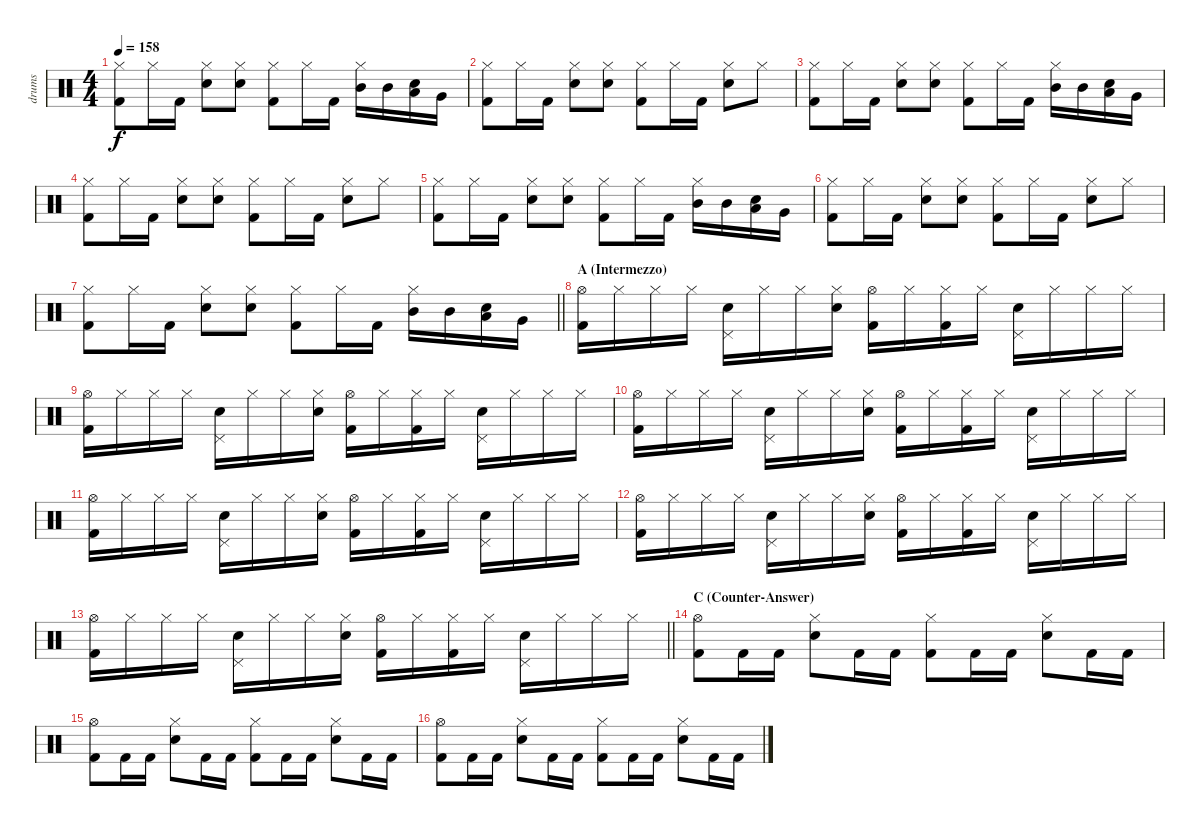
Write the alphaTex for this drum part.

\track ("drums" "drums") {instrument percussion}
\staff {score}
\articulation defaults
\ts (4 4)
\tempo 158
\clef neutral
\ks c
("Hi-Hat (closed)" "Kick (hit) 2").8{dy f} "Hi-Hat (closed)".16 "Kick (hit) 2".16 ("Hi-Hat (closed)" "Electric Snare (hit)").8 ("Hi-Hat (closed)" "Electric Snare (hit)").8 ("Hi-Hat (closed)" "Kick (hit) 2").8 "Hi-Hat (closed)".16 "Kick (hit) 2".16 ("Hi-Hat (closed)" "Mid Tom (hit)").16 "Mid Tom (hit)".16 ("Snare (hit)" "Low Tom (hit)").16 "Very Low Tom (hit)".16 |
("Hi-Hat (closed)" "Kick (hit) 2").8 "Hi-Hat (closed)".16 "Kick (hit) 2".16 ("Hi-Hat (closed)" "Electric Snare (hit)").8 ("Hi-Hat (closed)" "Electric Snare (hit)").8 ("Hi-Hat (closed)" "Kick (hit) 2").8 "Hi-Hat (closed)".16 "Kick (hit) 2".16 ("Hi-Hat (closed)" "Electric Snare (hit)").8 "Hi-Hat (closed)".8 |
("Hi-Hat (closed)" "Kick (hit) 2").8 "Hi-Hat (closed)".16 "Kick (hit) 2".16 ("Hi-Hat (closed)" "Electric Snare (hit)").8 ("Hi-Hat (closed)" "Electric Snare (hit)").8 ("Hi-Hat (closed)" "Kick (hit) 2").8 "Hi-Hat (closed)".16 "Kick (hit) 2".16 ("Hi-Hat (closed)" "Mid Tom (hit)").16 "Mid Tom (hit)".16 ("Snare (hit)" "Low Tom (hit)").16 "Very Low Tom (hit)".16 |
("Hi-Hat (closed)" "Kick (hit) 2").8 "Hi-Hat (closed)".16 "Kick (hit) 2".16 ("Hi-Hat (closed)" "Electric Snare (hit)").8 ("Hi-Hat (closed)" "Electric Snare (hit)").8 ("Hi-Hat (closed)" "Kick (hit) 2").8 "Hi-Hat (closed)".16 "Kick (hit) 2".16 ("Hi-Hat (closed)" "Electric Snare (hit)").8 "Hi-Hat (closed)".8 |
("Hi-Hat (closed)" "Kick (hit) 2").8 "Hi-Hat (closed)".16 "Kick (hit) 2".16 ("Hi-Hat (closed)" "Electric Snare (hit)").8 ("Hi-Hat (closed)" "Electric Snare (hit)").8 ("Hi-Hat (closed)" "Kick (hit) 2").8 "Hi-Hat (closed)".16 "Kick (hit) 2".16 ("Hi-Hat (closed)" "Mid Tom (hit)").16 "Mid Tom (hit)".16 ("Snare (hit)" "Low Tom (hit)").16 "Very Low Tom (hit)".16 |
("Hi-Hat (closed)" "Kick (hit) 2").8 "Hi-Hat (closed)".16 "Kick (hit) 2".16 ("Hi-Hat (closed)" "Electric Snare (hit)").8 ("Hi-Hat (closed)" "Electric Snare (hit)").8 ("Hi-Hat (closed)" "Kick (hit) 2").8 "Hi-Hat (closed)".16 "Kick (hit) 2".16 ("Hi-Hat (closed)" "Electric Snare (hit)").8 "Hi-Hat (closed)".8 |
\barLineRight lightlight
("Hi-Hat (closed)" "Kick (hit) 2").8 "Hi-Hat (closed)".16 "Kick (hit) 2".16 ("Hi-Hat (closed)" "Electric Snare (hit)").8 ("Hi-Hat (closed)" "Electric Snare (hit)").8 ("Hi-Hat (closed)" "Kick (hit) 2").8 "Hi-Hat (closed)".16 "Kick (hit) 2".16 ("Hi-Hat (closed)" "Mid Tom (hit)").16 "Mid Tom (hit)".16 ("Snare (hit)" "Low Tom (hit)").16 "Very Low Tom (hit)".16 |
\section ("" "A (Intermezzo)")
("Hi-Hat (open)" "Kick (hit) 2").16 "Hi-Hat (closed)".16 "Hi-Hat (closed)".16 "Hi-Hat (closed)".16 ("Pedal Hi-Hat (hit)" "Electric Snare (hit)").16 "Hi-Hat (closed)".16 "Hi-Hat (closed)".16 ("Hi-Hat (closed)" "Electric Snare (hit)").16 ("Hi-Hat (open)" "Kick (hit) 2").16 "Hi-Hat (closed)".16 ("Hi-Hat (closed)" "Kick (hit) 2").16 "Hi-Hat (closed)".16 ("Pedal Hi-Hat (hit)" "Electric Snare (hit)").16 "Hi-Hat (closed)".16 "Hi-Hat (closed)".16 "Hi-Hat (closed)".16 |
("Hi-Hat (open)" "Kick (hit) 2").16 "Hi-Hat (closed)".16 "Hi-Hat (closed)".16 "Hi-Hat (closed)".16 ("Pedal Hi-Hat (hit)" "Electric Snare (hit)").16 "Hi-Hat (closed)".16 "Hi-Hat (closed)".16 ("Hi-Hat (closed)" "Electric Snare (hit)").16 ("Hi-Hat (open)" "Kick (hit) 2").16 "Hi-Hat (closed)".16 ("Hi-Hat (closed)" "Kick (hit) 2").16 "Hi-Hat (closed)".16 ("Pedal Hi-Hat (hit)" "Electric Snare (hit)").16 "Hi-Hat (closed)".16 "Hi-Hat (closed)".16 "Hi-Hat (closed)".16 |
("Hi-Hat (open)" "Kick (hit) 2").16 "Hi-Hat (closed)".16 "Hi-Hat (closed)".16 "Hi-Hat (closed)".16 ("Pedal Hi-Hat (hit)" "Electric Snare (hit)").16 "Hi-Hat (closed)".16 "Hi-Hat (closed)".16 ("Hi-Hat (closed)" "Electric Snare (hit)").16 ("Hi-Hat (open)" "Kick (hit) 2").16 "Hi-Hat (closed)".16 ("Hi-Hat (closed)" "Kick (hit) 2").16 "Hi-Hat (closed)".16 ("Pedal Hi-Hat (hit)" "Electric Snare (hit)").16 "Hi-Hat (closed)".16 "Hi-Hat (closed)".16 "Hi-Hat (closed)".16 |
("Hi-Hat (open)" "Kick (hit) 2").16 "Hi-Hat (closed)".16 "Hi-Hat (closed)".16 "Hi-Hat (closed)".16 ("Pedal Hi-Hat (hit)" "Electric Snare (hit)").16 "Hi-Hat (closed)".16 "Hi-Hat (closed)".16 ("Hi-Hat (closed)" "Electric Snare (hit)").16 ("Hi-Hat (open)" "Kick (hit) 2").16 "Hi-Hat (closed)".16 ("Hi-Hat (closed)" "Kick (hit) 2").16 "Hi-Hat (closed)".16 ("Pedal Hi-Hat (hit)" "Electric Snare (hit)").16 "Hi-Hat (closed)".16 "Hi-Hat (closed)".16 "Hi-Hat (closed)".16 |
("Hi-Hat (open)" "Kick (hit) 2").16 "Hi-Hat (closed)".16 "Hi-Hat (closed)".16 "Hi-Hat (closed)".16 ("Pedal Hi-Hat (hit)" "Electric Snare (hit)").16 "Hi-Hat (closed)".16 "Hi-Hat (closed)".16 ("Hi-Hat (closed)" "Electric Snare (hit)").16 ("Hi-Hat (open)" "Kick (hit) 2").16 "Hi-Hat (closed)".16 ("Hi-Hat (closed)" "Kick (hit) 2").16 "Hi-Hat (closed)".16 ("Pedal Hi-Hat (hit)" "Electric Snare (hit)").16 "Hi-Hat (closed)".16 "Hi-Hat (closed)".16 "Hi-Hat (closed)".16 |
\barLineRight lightlight
("Hi-Hat (open)" "Kick (hit) 2").16 "Hi-Hat (closed)".16 "Hi-Hat (closed)".16 "Hi-Hat (closed)".16 ("Pedal Hi-Hat (hit)" "Electric Snare (hit)").16 "Hi-Hat (closed)".16 "Hi-Hat (closed)".16 ("Hi-Hat (closed)" "Electric Snare (hit)").16 ("Hi-Hat (open)" "Kick (hit) 2").16 "Hi-Hat (closed)".16 ("Hi-Hat (closed)" "Kick (hit) 2").16 "Hi-Hat (closed)".16 ("Pedal Hi-Hat (hit)" "Electric Snare (hit)").16 "Hi-Hat (closed)".16 "Hi-Hat (closed)".16 "Hi-Hat (closed)".16 |
\section ("" "C (Counter-Answer)")
("Hi-Hat (open)" "Kick (hit) 2").8 "Kick (hit) 2".16 "Kick (hit) 2".16 ("Hi-Hat (closed)" "Electric Snare (hit)").8 "Kick (hit) 2".16 "Kick (hit) 2".16 ("Hi-Hat (closed)" "Kick (hit) 2").8 "Kick (hit) 2".16 "Kick (hit) 2".16 ("Hi-Hat (closed)" "Electric Snare (hit)").8 "Kick (hit) 2".16 "Kick (hit) 2".16 |
("Hi-Hat (open)" "Kick (hit) 2").8 "Kick (hit) 2".16 "Kick (hit) 2".16 ("Hi-Hat (closed)" "Electric Snare (hit)").8 "Kick (hit) 2".16 "Kick (hit) 2".16 ("Hi-Hat (closed)" "Kick (hit) 2").8 "Kick (hit) 2".16 "Kick (hit) 2".16 ("Hi-Hat (closed)" "Electric Snare (hit)").8 "Kick (hit) 2".16 "Kick (hit) 2".16 |
("Hi-Hat (open)" "Kick (hit) 2").8 "Kick (hit) 2".16 "Kick (hit) 2".16 ("Hi-Hat (closed)" "Electric Snare (hit)").8 "Kick (hit) 2".16 "Kick (hit) 2".16 ("Hi-Hat (closed)" "Kick (hit) 2").8 "Kick (hit) 2".16 "Kick (hit) 2".16 ("Hi-Hat (closed)" "Electric Snare (hit)").8 "Kick (hit) 2".16 "Kick (hit) 2".16
